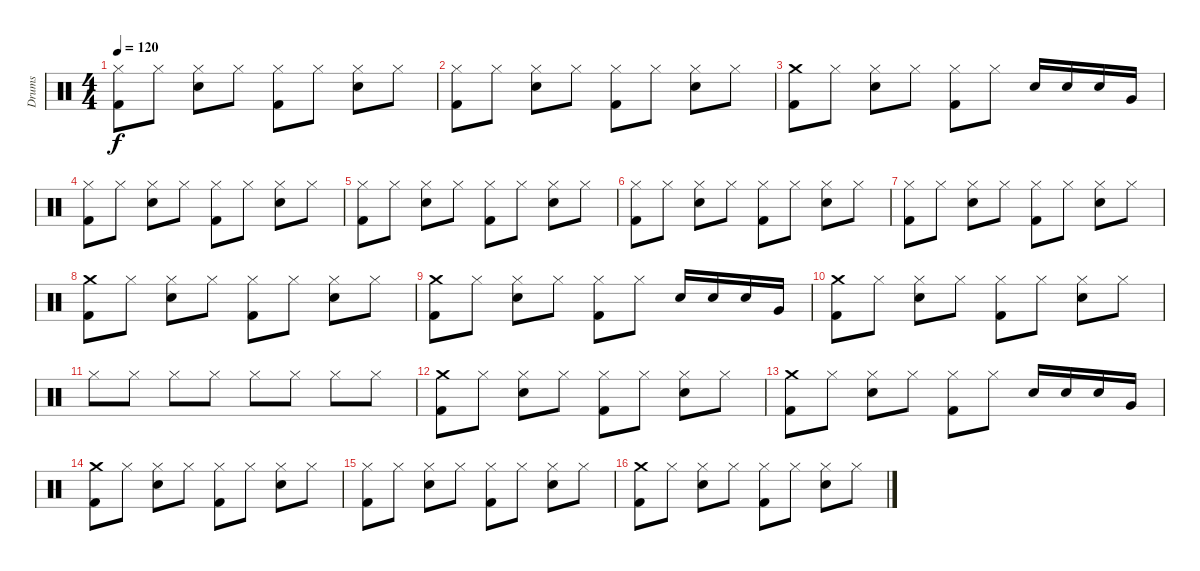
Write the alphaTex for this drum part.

\track ("Drums" "Drums") {instrument percussion}
\staff {score}
\articulation defaults
\ts (4 4)
\tempo 120
\clef neutral
\ks c
("Hi-Hat (closed)" "Kick (hit) 2").8{dy f} "Hi-Hat (closed)".8 ("Hi-Hat (closed)" "Snare (hit) 2").8 "Hi-Hat (closed)".8 ("Hi-Hat (closed)" "Kick (hit) 2").8 "Hi-Hat (closed)".8 ("Hi-Hat (closed)" "Snare (hit) 2").8 "Hi-Hat (closed)".8 |
("Hi-Hat (closed)" "Kick (hit) 2").8 "Hi-Hat (closed)".8 ("Hi-Hat (closed)" "Snare (hit) 2").8 "Hi-Hat (closed)".8 ("Hi-Hat (closed)" "Kick (hit) 2").8 "Hi-Hat (closed)".8 ("Hi-Hat (closed)" "Snare (hit) 2").8 "Hi-Hat (closed)".8 |
("Crash medium (hit)" "Kick (hit) 2").8 "Hi-Hat (closed)".8 ("Hi-Hat (closed)" "Snare (hit) 2").8 "Hi-Hat (closed)".8 ("Hi-Hat (closed)" "Kick (hit) 2").8 "Hi-Hat (closed)".8 "Snare (hit) 2".16 "Snare (hit) 2".16 "Snare (hit) 2".16 "Very Low Tom (hit)".16 |
("Hi-Hat (closed)" "Kick (hit) 2").8 "Hi-Hat (closed)".8 ("Hi-Hat (closed)" "Snare (hit) 2").8 "Hi-Hat (closed)".8 ("Hi-Hat (closed)" "Kick (hit) 2").8 "Hi-Hat (closed)".8 ("Hi-Hat (closed)" "Snare (hit) 2").8 "Hi-Hat (closed)".8 |
("Hi-Hat (closed)" "Kick (hit) 2").8 "Hi-Hat (closed)".8 ("Hi-Hat (closed)" "Snare (hit) 2").8 "Hi-Hat (closed)".8 ("Hi-Hat (closed)" "Kick (hit) 2").8 "Hi-Hat (closed)".8 ("Hi-Hat (closed)" "Snare (hit) 2").8 "Hi-Hat (closed)".8 |
("Hi-Hat (closed)" "Kick (hit) 2").8 "Hi-Hat (closed)".8 ("Hi-Hat (closed)" "Snare (hit) 2").8 "Hi-Hat (closed)".8 ("Hi-Hat (closed)" "Kick (hit) 2").8 "Hi-Hat (closed)".8 ("Hi-Hat (closed)" "Snare (hit) 2").8 "Hi-Hat (closed)".8 |
("Hi-Hat (closed)" "Kick (hit) 2").8 "Hi-Hat (closed)".8 ("Hi-Hat (closed)" "Snare (hit) 2").8 "Hi-Hat (closed)".8 ("Hi-Hat (closed)" "Kick (hit) 2").8 "Hi-Hat (closed)".8 ("Hi-Hat (closed)" "Snare (hit) 2").8 "Hi-Hat (closed)".8 |
("Crash medium (hit)" "Kick (hit) 2").8 "Hi-Hat (closed)".8 ("Hi-Hat (closed)" "Snare (hit) 2").8 "Hi-Hat (closed)".8 ("Hi-Hat (closed)" "Kick (hit) 2").8 "Hi-Hat (closed)".8 ("Hi-Hat (closed)" "Snare (hit) 2").8 "Hi-Hat (closed)".8 |
("Crash medium (hit)" "Kick (hit) 2").8 "Hi-Hat (closed)".8 ("Hi-Hat (closed)" "Snare (hit) 2").8 "Hi-Hat (closed)".8 ("Hi-Hat (closed)" "Kick (hit) 2").8 "Hi-Hat (closed)".8 "Snare (hit) 2".16 "Snare (hit) 2".16 "Snare (hit) 2".16 "Very Low Tom (hit)".16 |
("Crash medium (hit)" "Kick (hit) 2").8 "Hi-Hat (closed)".8 ("Hi-Hat (closed)" "Snare (hit) 2").8 "Hi-Hat (closed)".8 ("Hi-Hat (closed)" "Kick (hit) 2").8 "Hi-Hat (closed)".8 ("Hi-Hat (closed)" "Snare (hit) 2").8 "Hi-Hat (closed)".8 |
"Hi-Hat (closed)".8 "Hi-Hat (closed)".8 "Hi-Hat (closed)".8 "Hi-Hat (closed)".8 "Hi-Hat (closed)".8 "Hi-Hat (closed)".8 "Hi-Hat (closed)".8 "Hi-Hat (closed)".8 |
("Crash medium (hit)" "Kick (hit) 2").8 "Hi-Hat (closed)".8 ("Hi-Hat (closed)" "Snare (hit) 2").8 "Hi-Hat (closed)".8 ("Hi-Hat (closed)" "Kick (hit) 2").8 "Hi-Hat (closed)".8 ("Hi-Hat (closed)" "Snare (hit) 2").8 "Hi-Hat (closed)".8 |
("Crash medium (hit)" "Kick (hit) 2").8 "Hi-Hat (closed)".8 ("Hi-Hat (closed)" "Snare (hit) 2").8 "Hi-Hat (closed)".8 ("Hi-Hat (closed)" "Kick (hit) 2").8 "Hi-Hat (closed)".8 "Snare (hit) 2".16 "Snare (hit) 2".16 "Snare (hit) 2".16 "Very Low Tom (hit)".16 |
("Crash medium (hit)" "Kick (hit) 2").8 "Hi-Hat (closed)".8 ("Hi-Hat (closed)" "Snare (hit) 2").8 "Hi-Hat (closed)".8 ("Hi-Hat (closed)" "Kick (hit) 2").8 "Hi-Hat (closed)".8 ("Hi-Hat (closed)" "Snare (hit) 2").8 "Hi-Hat (closed)".8 |
("Hi-Hat (closed)" "Kick (hit) 2").8 "Hi-Hat (closed)".8 ("Hi-Hat (closed)" "Snare (hit) 2").8 "Hi-Hat (closed)".8 ("Hi-Hat (closed)" "Kick (hit) 2").8 "Hi-Hat (closed)".8 ("Hi-Hat (closed)" "Snare (hit) 2").8 "Hi-Hat (closed)".8 |
("Crash medium (hit)" "Kick (hit) 2").8 "Hi-Hat (closed)".8 ("Hi-Hat (closed)" "Snare (hit) 2").8 "Hi-Hat (closed)".8 ("Hi-Hat (closed)" "Kick (hit) 2").8 "Hi-Hat (closed)".8 ("Hi-Hat (closed)" "Snare (hit) 2").8 "Hi-Hat (closed)".8
